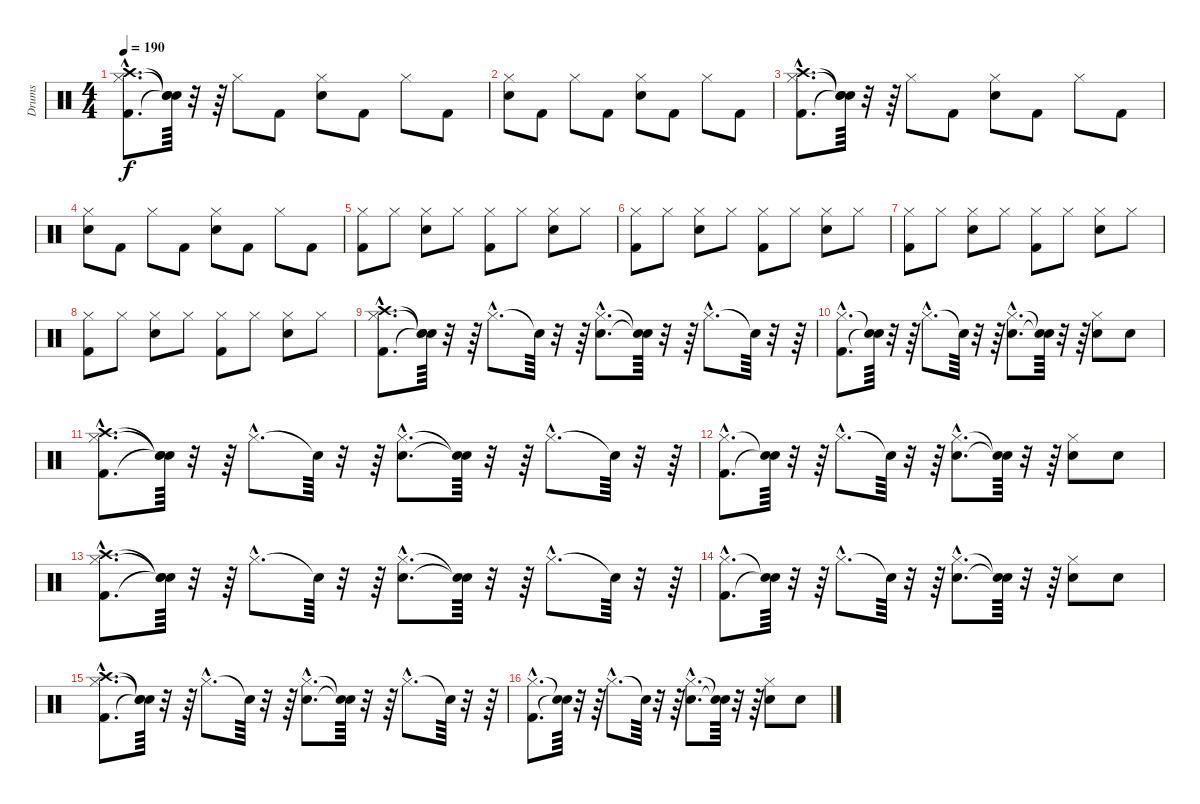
\track ("Drums" "Drums") {instrument percussion}
\staff {score}
\articulation defaults
\ts (4 4)
\tempo 190
\clef neutral
\ks c
("Kick (hit) 2"{hac} "Hi-Hat (closed)"{hac} "Crash high (hit)"{hac}).8{d dy f} ("Snare (hit)"{t} "Snare (hit)"{t} "Snare (hit)"{t}).64 r.32 r.64 "Hi-Hat (closed)".8 "Kick (hit) 2".8 ("Snare (hit) 2" "Hi-Hat (closed)").8 "Kick (hit) 2".8 "Hi-Hat (closed)".8 "Kick (hit) 2".8 |
("Snare (hit) 2" "Hi-Hat (closed)").8 "Kick (hit) 2".8 "Hi-Hat (closed)".8 "Kick (hit) 2".8 ("Snare (hit) 2" "Hi-Hat (closed)").8 "Kick (hit) 2".8 "Hi-Hat (closed)".8 "Kick (hit) 2".8 |
("Kick (hit) 2"{hac} "Hi-Hat (closed)"{hac} "Crash high (hit)"{hac}).8{d} ("Snare (hit)"{t} "Snare (hit)"{t} "Snare (hit)"{t}).64 r.32 r.64 "Hi-Hat (closed)".8 "Kick (hit) 2".8 ("Snare (hit) 2" "Hi-Hat (closed)").8 "Kick (hit) 2".8 "Hi-Hat (closed)".8 "Kick (hit) 2".8 |
("Snare (hit) 2" "Hi-Hat (closed)").8 "Kick (hit) 2".8 "Hi-Hat (closed)".8 "Kick (hit) 2".8 ("Snare (hit) 2" "Hi-Hat (closed)").8 "Kick (hit) 2".8 "Hi-Hat (closed)".8 "Kick (hit) 2".8 |
("Kick (hit) 2" "Hi-Hat (closed)").8 "Hi-Hat (closed)".8 ("Snare (hit) 2" "Hi-Hat (closed)").8 "Hi-Hat (closed)".8 ("Kick (hit) 2" "Hi-Hat (closed)").8 "Hi-Hat (closed)".8 ("Snare (hit) 2" "Hi-Hat (closed)").8 "Hi-Hat (closed)".8 |
("Kick (hit) 2" "Hi-Hat (closed)").8 "Hi-Hat (closed)".8 ("Snare (hit) 2" "Hi-Hat (closed)").8 "Hi-Hat (closed)".8 ("Kick (hit) 2" "Hi-Hat (closed)").8 "Hi-Hat (closed)".8 ("Snare (hit) 2" "Hi-Hat (closed)").8 "Hi-Hat (closed)".8 |
("Kick (hit) 2" "Hi-Hat (closed)").8 "Hi-Hat (closed)".8 ("Snare (hit) 2" "Hi-Hat (closed)").8 "Hi-Hat (closed)".8 ("Kick (hit) 2" "Hi-Hat (closed)").8 "Hi-Hat (closed)".8 ("Snare (hit) 2" "Hi-Hat (closed)").8 "Hi-Hat (closed)".8 |
("Kick (hit) 2" "Hi-Hat (closed)").8 "Hi-Hat (closed)".8 ("Snare (hit) 2" "Hi-Hat (closed)").8 "Hi-Hat (closed)".8 ("Kick (hit) 2" "Hi-Hat (closed)").8 "Hi-Hat (closed)".8 ("Snare (hit) 2" "Hi-Hat (closed)").8 "Hi-Hat (closed)".8 |
("Kick (hit) 2"{hac} "Hi-Hat (closed)"{hac} "Crash high (hit)"{hac}).8{d} ("Snare (hit)"{t} "Snare (hit)"{t} "Snare (hit)"{t}).64 r.32 r.64 "Hi-Hat (closed)"{hac}.8{d} "Snare (hit)"{t}.64 r.32 r.64 ("Snare (hit) 2"{hac} "Hi-Hat (closed)"{hac}).8{d} ("Snare (hit)"{t} "Snare (hit)"{t}).64 r.32 r.64 "Hi-Hat (closed)"{hac}.8{d} "Snare (hit)"{t}.64 r.32 r.64 |
("Kick (hit) 2"{hac} "Hi-Hat (closed)"{hac}).8{d} ("Snare (hit)"{t} "Snare (hit)"{t}).64 r.32 r.64 "Hi-Hat (closed)"{hac}.8{d} "Snare (hit)"{t}.64 r.32 r.64 ("Snare (hit) 2"{hac} "Hi-Hat (closed)"{hac}).8{d} ("Snare (hit)"{t} "Snare (hit)"{t}).64 r.32 r.64 ("Snare (hit) 2" "Hi-Hat (closed)").8 "Snare (hit) 2".8 |
("Kick (hit) 2"{hac} "Hi-Hat (closed)"{hac} "Crash high (hit)"{hac}).8{d} ("Snare (hit)"{t} "Snare (hit)"{t} "Snare (hit)"{t}).64 r.32 r.64 "Hi-Hat (closed)"{hac}.8{d} "Snare (hit)"{t}.64 r.32 r.64 ("Snare (hit) 2"{hac} "Hi-Hat (closed)"{hac}).8{d} ("Snare (hit)"{t} "Snare (hit)"{t}).64 r.32 r.64 "Hi-Hat (closed)"{hac}.8{d} "Snare (hit)"{t}.64 r.32 r.64 |
("Kick (hit) 2"{hac} "Hi-Hat (closed)"{hac}).8{d} ("Snare (hit)"{t} "Snare (hit)"{t}).64 r.32 r.64 "Hi-Hat (closed)"{hac}.8{d} "Snare (hit)"{t}.64 r.32 r.64 ("Snare (hit) 2"{hac} "Hi-Hat (closed)"{hac}).8{d} ("Snare (hit)"{t} "Snare (hit)"{t}).64 r.32 r.64 ("Snare (hit) 2" "Hi-Hat (closed)").8 "Snare (hit) 2".8 |
("Kick (hit) 2"{hac} "Hi-Hat (closed)"{hac} "Crash high (hit)"{hac}).8{d} ("Snare (hit)"{t} "Snare (hit)"{t} "Snare (hit)"{t}).64 r.32 r.64 "Hi-Hat (closed)"{hac}.8{d} "Snare (hit)"{t}.64 r.32 r.64 ("Snare (hit) 2"{hac} "Hi-Hat (closed)"{hac}).8{d} ("Snare (hit)"{t} "Snare (hit)"{t}).64 r.32 r.64 "Hi-Hat (closed)"{hac}.8{d} "Snare (hit)"{t}.64 r.32 r.64 |
("Kick (hit) 2"{hac} "Hi-Hat (closed)"{hac}).8{d} ("Snare (hit)"{t} "Snare (hit)"{t}).64 r.32 r.64 "Hi-Hat (closed)"{hac}.8{d} "Snare (hit)"{t}.64 r.32 r.64 ("Snare (hit) 2"{hac} "Hi-Hat (closed)"{hac}).8{d} ("Snare (hit)"{t} "Snare (hit)"{t}).64 r.32 r.64 ("Snare (hit) 2" "Hi-Hat (closed)").8 "Snare (hit) 2".8 |
("Kick (hit) 2"{hac} "Hi-Hat (closed)"{hac} "Crash high (hit)"{hac}).8{d} ("Snare (hit)"{t} "Snare (hit)"{t} "Snare (hit)"{t}).64 r.32 r.64 "Hi-Hat (closed)"{hac}.8{d} "Snare (hit)"{t}.64 r.32 r.64 ("Snare (hit) 2"{hac} "Hi-Hat (closed)"{hac}).8{d} ("Snare (hit)"{t} "Snare (hit)"{t}).64 r.32 r.64 "Hi-Hat (closed)"{hac}.8{d} "Snare (hit)"{t}.64 r.32 r.64 |
("Kick (hit) 2"{hac} "Hi-Hat (closed)"{hac}).8{d} ("Snare (hit)"{t} "Snare (hit)"{t}).64 r.32 r.64 "Hi-Hat (closed)"{hac}.8{d} "Snare (hit)"{t}.64 r.32 r.64 ("Snare (hit) 2"{hac} "Hi-Hat (closed)"{hac}).8{d} ("Snare (hit)"{t} "Snare (hit)"{t}).64 r.32 r.64 ("Snare (hit) 2" "Hi-Hat (closed)").8 "Snare (hit) 2".8
